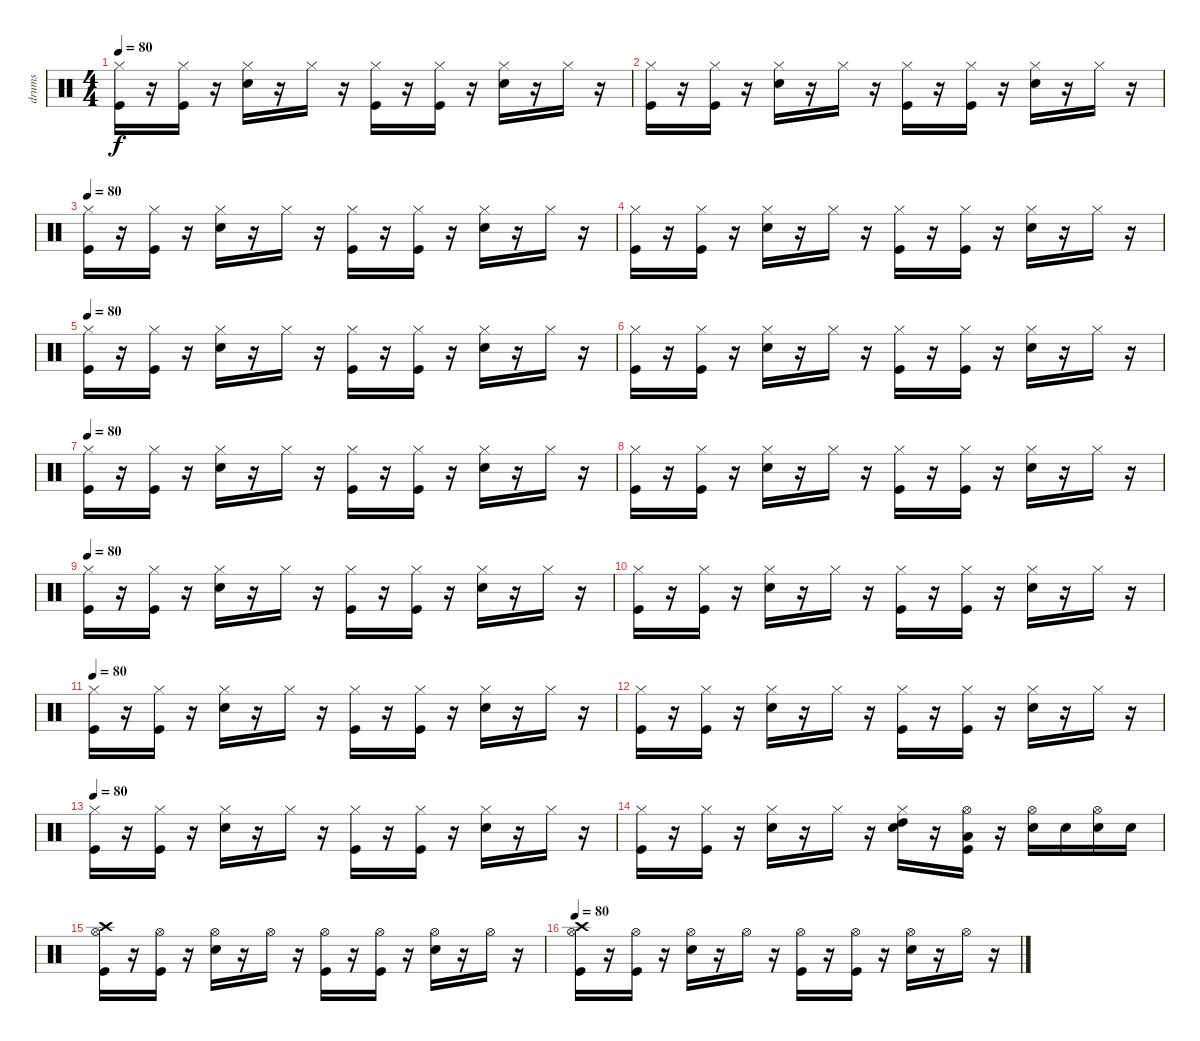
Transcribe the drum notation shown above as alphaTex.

\track ("drums" "drums") {instrument percussion}
\staff {score}
\articulation defaults
\ts (4 4)
\tempo 80
\clef neutral
\ks c
("Kick (hit)" "Hi-Hat (closed)").16{dy f} r.16 ("Hi-Hat (closed)" "Kick (hit)").16 r.16 ("Hi-Hat (closed)" "Electric Snare (hit)").16 r.16 "Hi-Hat (closed)".16 r.16 ("Kick (hit)" "Hi-Hat (closed)").16 r.16 ("Hi-Hat (closed)" "Kick (hit)").16 r.16 ("Hi-Hat (closed)" "Electric Snare (hit)").16 r.16 "Hi-Hat (closed)".16 r.16 |
("Kick (hit)" "Hi-Hat (closed)").16 r.16 ("Hi-Hat (closed)" "Kick (hit)").16 r.16 ("Hi-Hat (closed)" "Electric Snare (hit)").16 r.16 "Hi-Hat (closed)".16 r.16 ("Kick (hit)" "Hi-Hat (closed)").16 r.16 ("Hi-Hat (closed)" "Kick (hit)").16 r.16 ("Hi-Hat (closed)" "Electric Snare (hit)").16 r.16 "Hi-Hat (closed)".16 r.16 |
\tempo 80
("Kick (hit)" "Hi-Hat (closed)").16 r.16 ("Hi-Hat (closed)" "Kick (hit)").16 r.16 ("Hi-Hat (closed)" "Electric Snare (hit)").16 r.16 "Hi-Hat (closed)".16 r.16 ("Kick (hit)" "Hi-Hat (closed)").16 r.16 ("Hi-Hat (closed)" "Kick (hit)").16 r.16 ("Hi-Hat (closed)" "Electric Snare (hit)").16 r.16 "Hi-Hat (closed)".16 r.16 |
("Kick (hit)" "Hi-Hat (closed)").16 r.16 ("Hi-Hat (closed)" "Kick (hit)").16 r.16 ("Hi-Hat (closed)" "Electric Snare (hit)").16 r.16 "Hi-Hat (closed)".16 r.16 ("Kick (hit)" "Hi-Hat (closed)").16 r.16 ("Hi-Hat (closed)" "Kick (hit)").16 r.16 ("Hi-Hat (closed)" "Electric Snare (hit)").16 r.16 "Hi-Hat (closed)".16 r.16 |
\tempo 80
("Kick (hit)" "Hi-Hat (closed)").16 r.16 ("Hi-Hat (closed)" "Kick (hit)").16 r.16 ("Hi-Hat (closed)" "Electric Snare (hit)").16 r.16 "Hi-Hat (closed)".16 r.16 ("Kick (hit)" "Hi-Hat (closed)").16 r.16 ("Hi-Hat (closed)" "Kick (hit)").16 r.16 ("Hi-Hat (closed)" "Electric Snare (hit)").16 r.16 "Hi-Hat (closed)".16 r.16 |
("Kick (hit)" "Hi-Hat (closed)").16 r.16 ("Hi-Hat (closed)" "Kick (hit)").16 r.16 ("Hi-Hat (closed)" "Electric Snare (hit)").16 r.16 "Hi-Hat (closed)".16 r.16 ("Kick (hit)" "Hi-Hat (closed)").16 r.16 ("Hi-Hat (closed)" "Kick (hit)").16 r.16 ("Hi-Hat (closed)" "Electric Snare (hit)").16 r.16 "Hi-Hat (closed)".16 r.16 |
\tempo 80
("Kick (hit)" "Hi-Hat (closed)").16 r.16 ("Hi-Hat (closed)" "Kick (hit)").16 r.16 ("Hi-Hat (closed)" "Electric Snare (hit)").16 r.16 "Hi-Hat (closed)".16 r.16 ("Kick (hit)" "Hi-Hat (closed)").16 r.16 ("Hi-Hat (closed)" "Kick (hit)").16 r.16 ("Hi-Hat (closed)" "Electric Snare (hit)").16 r.16 "Hi-Hat (closed)".16 r.16 |
("Kick (hit)" "Hi-Hat (closed)").16 r.16 ("Hi-Hat (closed)" "Kick (hit)").16 r.16 ("Hi-Hat (closed)" "Electric Snare (hit)").16 r.16 "Hi-Hat (closed)".16 r.16 ("Kick (hit)" "Hi-Hat (closed)").16 r.16 ("Hi-Hat (closed)" "Kick (hit)").16 r.16 ("Hi-Hat (closed)" "Electric Snare (hit)").16 r.16 "Hi-Hat (closed)".16 r.16 |
\tempo 80
("Kick (hit)" "Hi-Hat (closed)").16 r.16 ("Hi-Hat (closed)" "Kick (hit)").16 r.16 ("Hi-Hat (closed)" "Electric Snare (hit)").16 r.16 "Hi-Hat (closed)".16 r.16 ("Kick (hit)" "Hi-Hat (closed)").16 r.16 ("Hi-Hat (closed)" "Kick (hit)").16 r.16 ("Hi-Hat (closed)" "Electric Snare (hit)").16 r.16 "Hi-Hat (closed)".16 r.16 |
("Kick (hit)" "Hi-Hat (closed)").16 r.16 ("Hi-Hat (closed)" "Kick (hit)").16 r.16 ("Hi-Hat (closed)" "Electric Snare (hit)").16 r.16 "Hi-Hat (closed)".16 r.16 ("Kick (hit)" "Hi-Hat (closed)").16 r.16 ("Hi-Hat (closed)" "Kick (hit)").16 r.16 ("Hi-Hat (closed)" "Electric Snare (hit)").16 r.16 "Hi-Hat (closed)".16 r.16 |
\tempo 80
("Kick (hit)" "Hi-Hat (closed)").16 r.16 ("Hi-Hat (closed)" "Kick (hit)").16 r.16 ("Hi-Hat (closed)" "Electric Snare (hit)").16 r.16 "Hi-Hat (closed)".16 r.16 ("Kick (hit)" "Hi-Hat (closed)").16 r.16 ("Hi-Hat (closed)" "Kick (hit)").16 r.16 ("Hi-Hat (closed)" "Electric Snare (hit)").16 r.16 "Hi-Hat (closed)".16 r.16 |
("Kick (hit)" "Hi-Hat (closed)").16 r.16 ("Hi-Hat (closed)" "Kick (hit)").16 r.16 ("Hi-Hat (closed)" "Electric Snare (hit)").16 r.16 "Hi-Hat (closed)".16 r.16 ("Kick (hit)" "Hi-Hat (closed)").16 r.16 ("Hi-Hat (closed)" "Kick (hit)").16 r.16 ("Hi-Hat (closed)" "Electric Snare (hit)").16 r.16 "Hi-Hat (closed)".16 r.16 |
\tempo 80
("Kick (hit)" "Hi-Hat (closed)").16 r.16 ("Hi-Hat (closed)" "Kick (hit)").16 r.16 ("Hi-Hat (closed)" "Electric Snare (hit)").16 r.16 "Hi-Hat (closed)".16 r.16 ("Kick (hit)" "Hi-Hat (closed)").16 r.16 ("Hi-Hat (closed)" "Kick (hit)").16 r.16 ("Hi-Hat (closed)" "Electric Snare (hit)").16 r.16 "Hi-Hat (closed)".16 r.16 |
("Kick (hit)" "Hi-Hat (closed)").16 r.16 ("Hi-Hat (closed)" "Kick (hit)").16 r.16 ("Hi-Hat (closed)" "Electric Snare (hit)").16 r.16 "Hi-Hat (closed)".16 r.16 ("Hi-Hat (closed)" "Electric Snare (hit)" "High Tom (hit)").16 r.16 ("Low Tom (hit)" "Kick (hit)" "Hi-Hat (open)").16 r.16 ("Hi-Hat (open)" "Electric Snare (hit)").16 "Electric Snare (hit)".16 ("Hi-Hat (open)" "Electric Snare (hit)").16 "Electric Snare (hit)".16 |
("Hi-Hat (open)" "Kick (hit)" "Crash high (hit)").16 r.16 ("Hi-Hat (open)" "Kick (hit)").16 r.16 ("Electric Snare (hit)" "Hi-Hat (open)").16 r.16 "Hi-Hat (open)".16 r.16 ("Kick (hit)" "Hi-Hat (open)").16 r.16 ("Hi-Hat (open)" "Kick (hit)").16 r.16 ("Electric Snare (hit)" "Hi-Hat (open)").16 r.16 "Hi-Hat (open)".16 r.16 |
\tempo 80
("Hi-Hat (open)" "Kick (hit)" "Crash high (hit)").16 r.16 ("Hi-Hat (open)" "Kick (hit)").16 r.16 ("Electric Snare (hit)" "Hi-Hat (open)").16 r.16 "Hi-Hat (open)".16 r.16 ("Kick (hit)" "Hi-Hat (open)").16 r.16 ("Hi-Hat (open)" "Kick (hit)").16 r.16 ("Electric Snare (hit)" "Hi-Hat (open)").16 r.16 "Hi-Hat (open)".16 r.16
